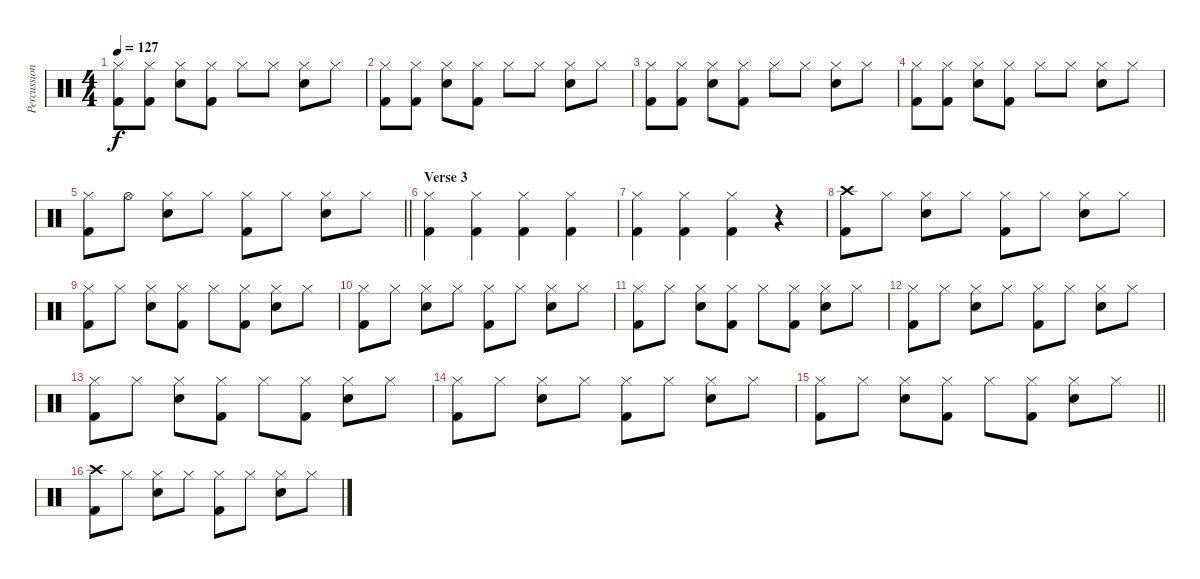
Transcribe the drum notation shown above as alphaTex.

\track ("Percussion" "Percussion") {instrument percussion}
\staff {score}
\articulation defaults
\ts (4 4)
\tempo 127
\clef neutral
\ks c
("Hi-Hat (closed)" "Kick (hit) 2").8{dy f} ("Hi-Hat (closed)" "Kick (hit) 2").8 ("Hi-Hat (closed)" "Snare (hit) 2").8 ("Hi-Hat (closed)" "Kick (hit) 2").8 "Hi-Hat (closed)".8 "Hi-Hat (closed)".8 ("Hi-Hat (closed)" "Snare (hit) 2").8 "Hi-Hat (closed)".8 |
("Hi-Hat (closed)" "Kick (hit) 2").8 ("Hi-Hat (closed)" "Kick (hit) 2").8 ("Hi-Hat (closed)" "Snare (hit) 2").8 ("Hi-Hat (closed)" "Kick (hit) 2").8 "Hi-Hat (closed)".8 "Hi-Hat (closed)".8 ("Hi-Hat (closed)" "Snare (hit) 2").8 "Hi-Hat (closed)".8 |
("Hi-Hat (closed)" "Kick (hit) 2").8 ("Hi-Hat (closed)" "Kick (hit) 2").8 ("Hi-Hat (closed)" "Snare (hit) 2").8 ("Hi-Hat (closed)" "Kick (hit) 2").8 "Hi-Hat (closed)".8 "Hi-Hat (closed)".8 ("Hi-Hat (closed)" "Snare (hit) 2").8 "Hi-Hat (closed)".8 |
("Hi-Hat (closed)" "Kick (hit) 2").8 ("Hi-Hat (closed)" "Kick (hit) 2").8 ("Hi-Hat (closed)" "Snare (hit) 2").8 ("Hi-Hat (closed)" "Kick (hit) 2").8 "Hi-Hat (closed)".8 "Hi-Hat (closed)".8 ("Hi-Hat (closed)" "Snare (hit) 2").8 "Hi-Hat (closed)".8 |
\barLineRight lightlight
("Hi-Hat (closed)" "Kick (hit) 2").8 "Hi-Hat (open)".8 ("Hi-Hat (closed)" "Snare (hit) 2").8 "Hi-Hat (closed)".8 ("Hi-Hat (closed)" "Kick (hit) 2").8 "Hi-Hat (closed)".8 ("Hi-Hat (closed)" "Snare (hit) 2").8 "Hi-Hat (closed)".8 |
\section ("" "Verse 3")
("Hi-Hat (closed)" "Kick (hit) 2").4 ("Hi-Hat (closed)" "Kick (hit) 2").4 ("Hi-Hat (closed)" "Kick (hit) 2").4 ("Hi-Hat (closed)" "Kick (hit) 2").4 |
("Hi-Hat (closed)" "Kick (hit) 2").4 ("Hi-Hat (closed)" "Kick (hit) 2").4 ("Hi-Hat (closed)" "Kick (hit) 2").4 r.4 |
("Crash high (hit)" "Kick (hit) 2").8 "Hi-Hat (closed)".8 ("Hi-Hat (closed)" "Snare (hit) 2").8 "Hi-Hat (closed)".8 ("Hi-Hat (closed)" "Kick (hit) 2").8 "Hi-Hat (closed)".8 ("Hi-Hat (closed)" "Snare (hit) 2").8 "Hi-Hat (closed)".8 |
("Hi-Hat (closed)" "Kick (hit) 2").8 "Hi-Hat (closed)".8 ("Hi-Hat (closed)" "Snare (hit) 2").8 ("Hi-Hat (closed)" "Kick (hit) 2").8 "Hi-Hat (closed)".8 ("Hi-Hat (closed)" "Kick (hit) 2").8 ("Hi-Hat (closed)" "Snare (hit) 2").8 "Hi-Hat (closed)".8 |
("Hi-Hat (closed)" "Kick (hit) 2").8 "Hi-Hat (closed)".8 ("Hi-Hat (closed)" "Snare (hit) 2").8 "Hi-Hat (closed)".8 ("Hi-Hat (closed)" "Kick (hit) 2").8 "Hi-Hat (closed)".8 ("Hi-Hat (closed)" "Snare (hit) 2").8 "Hi-Hat (closed)".8 |
("Hi-Hat (closed)" "Kick (hit) 2").8 "Hi-Hat (closed)".8 ("Hi-Hat (closed)" "Snare (hit) 2").8 ("Hi-Hat (closed)" "Kick (hit) 2").8 "Hi-Hat (closed)".8 ("Hi-Hat (closed)" "Kick (hit) 2").8 ("Hi-Hat (closed)" "Snare (hit) 2").8 "Hi-Hat (closed)".8 |
("Hi-Hat (closed)" "Kick (hit) 2").8 "Hi-Hat (closed)".8 ("Hi-Hat (closed)" "Snare (hit) 2").8 "Hi-Hat (closed)".8 ("Hi-Hat (closed)" "Kick (hit) 2").8 "Hi-Hat (closed)".8 ("Hi-Hat (closed)" "Snare (hit) 2").8 "Hi-Hat (closed)".8 |
("Hi-Hat (closed)" "Kick (hit) 2").8 "Hi-Hat (closed)".8 ("Hi-Hat (closed)" "Snare (hit) 2").8 ("Hi-Hat (closed)" "Kick (hit) 2").8 "Hi-Hat (closed)".8 ("Hi-Hat (closed)" "Kick (hit) 2").8 ("Hi-Hat (closed)" "Snare (hit) 2").8 "Hi-Hat (closed)".8 |
("Hi-Hat (closed)" "Kick (hit) 2").8 "Hi-Hat (closed)".8 ("Hi-Hat (closed)" "Snare (hit) 2").8 "Hi-Hat (closed)".8 ("Hi-Hat (closed)" "Kick (hit) 2").8 "Hi-Hat (closed)".8 ("Hi-Hat (closed)" "Snare (hit) 2").8 "Hi-Hat (closed)".8 |
\barLineRight lightlight
("Hi-Hat (closed)" "Kick (hit) 2").8 "Hi-Hat (closed)".8 ("Hi-Hat (closed)" "Snare (hit) 2").8 ("Hi-Hat (closed)" "Kick (hit) 2").8 "Hi-Hat (closed)".8 ("Hi-Hat (closed)" "Kick (hit) 2").8 ("Hi-Hat (closed)" "Snare (hit) 2").8 "Hi-Hat (closed)".8 |
("Crash high (hit)" "Kick (hit) 2").8 "Hi-Hat (closed)".8 ("Hi-Hat (closed)" "Snare (hit) 2").8 "Hi-Hat (closed)".8 ("Hi-Hat (closed)" "Kick (hit) 2").8 "Hi-Hat (closed)".8 ("Hi-Hat (closed)" "Snare (hit) 2").8 "Hi-Hat (closed)".8
